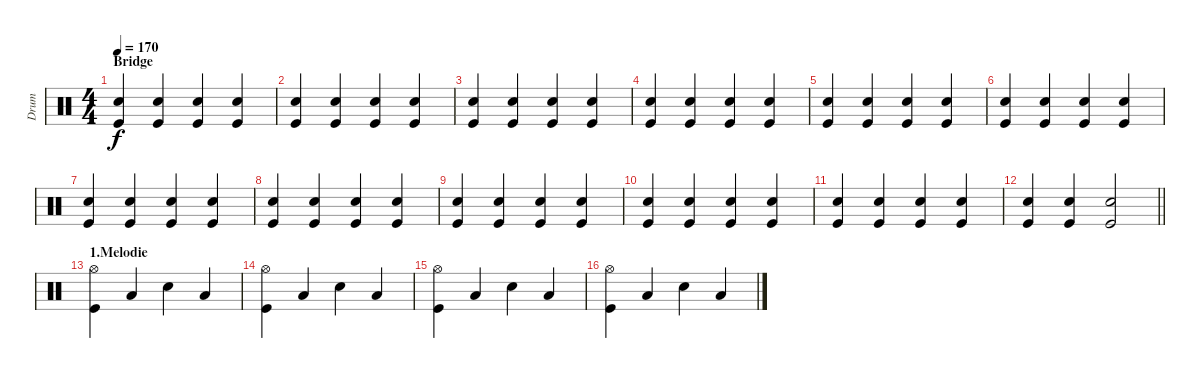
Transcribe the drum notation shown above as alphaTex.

\track ("Drum" "Drum") {instrument percussion}
\staff {score}
\articulation defaults
\ts (4 4)
\section ("" "Bridge")
\tempo 170
\clef neutral
\ks c
("Kick (hit)" "Snare (hit) 2").4{dy f} ("Kick (hit)" "Snare (hit) 2").4 ("Kick (hit)" "Snare (hit) 2").4 ("Kick (hit)" "Snare (hit) 2").4 |
("Kick (hit)" "Snare (hit) 2").4 ("Kick (hit)" "Snare (hit) 2").4 ("Kick (hit)" "Snare (hit) 2").4 ("Kick (hit)" "Snare (hit) 2").4 |
("Kick (hit)" "Snare (hit) 2").4 ("Kick (hit)" "Snare (hit) 2").4 ("Kick (hit)" "Snare (hit) 2").4 ("Kick (hit)" "Snare (hit) 2").4 |
("Kick (hit)" "Snare (hit) 2").4 ("Kick (hit)" "Snare (hit) 2").4 ("Kick (hit)" "Snare (hit) 2").4 ("Kick (hit)" "Snare (hit) 2").4 |
("Kick (hit)" "Snare (hit) 2").4 ("Kick (hit)" "Snare (hit) 2").4 ("Kick (hit)" "Snare (hit) 2").4 ("Kick (hit)" "Snare (hit) 2").4 |
("Kick (hit)" "Snare (hit) 2").4 ("Kick (hit)" "Snare (hit) 2").4 ("Kick (hit)" "Snare (hit) 2").4 ("Kick (hit)" "Snare (hit) 2").4 |
("Kick (hit)" "Snare (hit) 2").4 ("Kick (hit)" "Snare (hit) 2").4 ("Kick (hit)" "Snare (hit) 2").4 ("Kick (hit)" "Snare (hit) 2").4 |
("Kick (hit)" "Snare (hit) 2").4 ("Kick (hit)" "Snare (hit) 2").4 ("Kick (hit)" "Snare (hit) 2").4 ("Kick (hit)" "Snare (hit) 2").4 |
("Kick (hit)" "Snare (hit) 2").4 ("Kick (hit)" "Snare (hit) 2").4 ("Kick (hit)" "Snare (hit) 2").4 ("Kick (hit)" "Snare (hit) 2").4 |
("Kick (hit)" "Snare (hit) 2").4 ("Kick (hit)" "Snare (hit) 2").4 ("Kick (hit)" "Snare (hit) 2").4 ("Kick (hit)" "Snare (hit) 2").4 |
("Kick (hit)" "Snare (hit) 2").4 ("Kick (hit)" "Snare (hit) 2").4 ("Kick (hit)" "Snare (hit) 2").4 ("Kick (hit)" "Snare (hit) 2").4 |
\barLineRight lightlight
("Kick (hit)" "Snare (hit) 2").4 ("Kick (hit)" "Snare (hit) 2").4 ("Kick (hit)" "Snare (hit) 2").2 |
\section ("" "1.Melodie")
("Hi-Hat (open)" "Kick (hit)").4 "Low Floor Tom (hit)".4 "Snare (hit) 2".4 "Low Floor Tom (hit)".4 |
("Hi-Hat (open)" "Kick (hit)").4 "Low Floor Tom (hit)".4 "Snare (hit) 2".4 "Low Floor Tom (hit)".4 |
("Hi-Hat (open)" "Kick (hit)").4 "Low Floor Tom (hit)".4 "Snare (hit) 2".4 "Low Floor Tom (hit)".4 |
("Hi-Hat (open)" "Kick (hit)").4 "Low Floor Tom (hit)".4 "Snare (hit) 2".4 "Low Floor Tom (hit)".4
